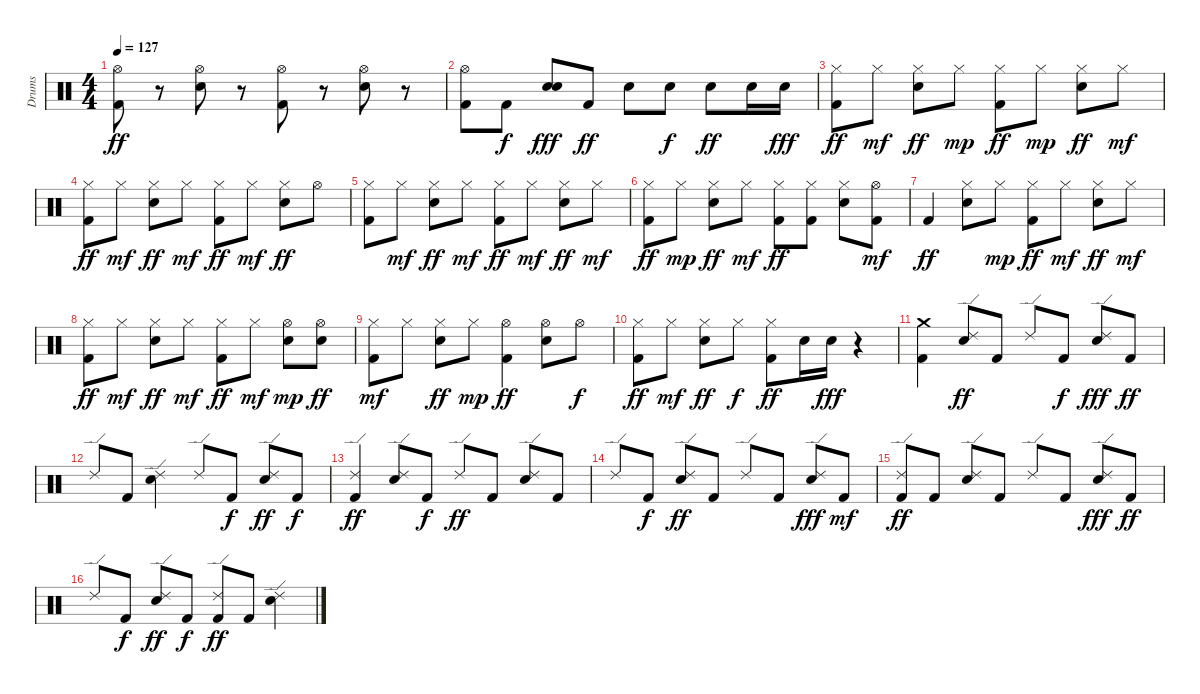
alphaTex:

\track ("Drums" "Drums") {instrument percussion}
\staff {score}
\articulation defaults
\ts (4 4)
\tempo 127
\clef neutral
\ks c
("Hi-Hat (open)" "Kick (hit) 2").8{dy ff} r.8 ("Hi-Hat (open)" "Electric Snare (hit)").8 r.8 ("Hi-Hat (open)" "Kick (hit) 2").8 r.8 ("Hi-Hat (open)" "Electric Snare (hit)").8 r.8 |
("Hi-Hat (open)" "Kick (hit) 2").8 "Kick (hit) 2".8{dy f} ("Electric Snare (hit)" "Electric Snare (hit)").8{dy fff} "Kick (hit) 2".8{dy ff} "Electric Snare (hit)".8 "Electric Snare (hit)".8{dy f} "Electric Snare (hit)".8{dy ff} "Electric Snare (hit)".16 "Electric Snare (hit)".16{dy fff} |
("Hi-Hat (closed)" "Kick (hit) 2").8{dy ff} "Hi-Hat (closed)".8{dy mf} ("Electric Snare (hit)" "Hi-Hat (closed)").8{dy ff} "Hi-Hat (closed)".8{dy mp} ("Hi-Hat (closed)" "Kick (hit) 2").8{dy ff} "Hi-Hat (closed)".8{dy mp} ("Electric Snare (hit)" "Hi-Hat (closed)").8{dy ff} "Hi-Hat (closed)".8{dy mf} |
("Hi-Hat (closed)" "Kick (hit) 2").8{dy ff} "Hi-Hat (closed)".8{dy mf} ("Hi-Hat (closed)" "Electric Snare (hit)").8{dy ff} "Hi-Hat (closed)".8{dy mf} ("Hi-Hat (closed)" "Kick (hit) 2").8{dy ff} "Hi-Hat (closed)".8{dy mf} ("Electric Snare (hit)" "Hi-Hat (closed)").8{dy ff} "Hi-Hat (open)".8 |
("Hi-Hat (closed)" "Kick (hit) 2").8 "Hi-Hat (closed)".8{dy mf} ("Electric Snare (hit)" "Hi-Hat (closed)").8{dy ff} "Hi-Hat (closed)".8{dy mf} ("Kick (hit) 2" "Hi-Hat (closed)").8{dy ff} "Hi-Hat (closed)".8{dy mf} ("Hi-Hat (closed)" "Electric Snare (hit)").8{dy ff} "Hi-Hat (closed)".8{dy mf} |
("Kick (hit) 2" "Hi-Hat (closed)").8{dy ff} "Hi-Hat (closed)".8{dy mp} ("Electric Snare (hit)" "Hi-Hat (closed)").8{dy ff} "Hi-Hat (closed)".8{dy mf} ("Kick (hit) 2" "Hi-Hat (closed)").8{dy ff} ("Kick (hit) 2" "Hi-Hat (closed)").8 ("Electric Snare (hit)" "Hi-Hat (closed)").8 ("Hi-Hat (open)" "Kick (hit) 2").8{dy mf} |
"Kick (hit) 2".4{dy ff} ("Electric Snare (hit)" "Hi-Hat (closed)").8 "Hi-Hat (closed)".8{dy mp} ("Hi-Hat (closed)" "Kick (hit) 2").8{dy ff} "Hi-Hat (closed)".8{dy mf} ("Hi-Hat (closed)" "Electric Snare (hit)").8{dy ff} "Hi-Hat (closed)".8{dy mf} |
("Hi-Hat (closed)" "Kick (hit) 2").8{dy ff} "Hi-Hat (closed)".8{dy mf} ("Hi-Hat (closed)" "Electric Snare (hit)").8{dy ff} "Hi-Hat (closed)".8{dy mf} ("Hi-Hat (closed)" "Kick (hit) 2").8{dy ff} "Hi-Hat (closed)".8{dy mf} ("Electric Snare (hit)" "Hi-Hat (open)").8{dy mp} ("Electric Snare (hit)" "Hi-Hat (open)").8{dy ff} |
("Kick (hit) 2" "Hi-Hat (closed)").8{dy mf} "Hi-Hat (closed)".8 ("Electric Snare (hit)" "Hi-Hat (closed)").8{dy ff} "Hi-Hat (closed)".8{dy mp} ("Hi-Hat (open)" "Kick (hit) 2").4{dy ff} ("Hi-Hat (open)" "Electric Snare (hit)").8 "Hi-Hat (open)".8{dy f} |
("Hi-Hat (closed)" "Kick (hit) 2").8{dy ff} "Hi-Hat (closed)".8{dy mf} ("Hi-Hat (closed)" "Electric Snare (hit)").8{dy ff} "Hi-Hat (closed)".8{dy f} ("Kick (hit) 2" "Hi-Hat (closed)").8{dy ff} "Electric Snare (hit)".16 "Electric Snare (hit)".16{dy fff} r.4 |
("Crash medium (hit)" "Kick (hit) 2").4 ("Ride (edge) 2" "Electric Snare (hit)").8{dy ff} "Kick (hit) 2".8 "Ride (edge) 2".8 "Kick (hit) 2".8{dy f} ("Ride (edge) 2" "Electric Snare (hit)").8{dy fff} "Kick (hit) 2".8{dy ff} |
"Ride (edge) 2".8 "Kick (hit) 2".8 ("Ride (edge) 2" "Electric Snare (hit)").4 "Ride (edge) 2".8 "Kick (hit) 2".8{dy f} ("Ride (edge) 2" "Electric Snare (hit)").8{dy ff} "Kick (hit) 2".8{dy f} |
("Ride (edge) 2" "Kick (hit) 2").4{dy ff} ("Ride (edge) 2" "Electric Snare (hit)").8 "Kick (hit) 2".8{dy f} "Ride (edge) 2".8{dy ff} "Kick (hit) 2".8 ("Ride (edge) 2" "Electric Snare (hit)").8 "Kick (hit) 2".8 |
"Ride (edge) 2".8 "Kick (hit) 2".8{dy f} ("Ride (edge) 2" "Electric Snare (hit)").8{dy ff} "Kick (hit) 2".8 "Ride (edge) 2".8 "Kick (hit) 2".8 ("Ride (edge) 2" "Electric Snare (hit)").8{dy fff} "Kick (hit) 2".8{dy mf} |
("Ride (edge) 2" "Kick (hit) 2").8{dy ff} "Kick (hit) 2".8 ("Ride (edge) 2" "Electric Snare (hit)").8 "Kick (hit) 2".8 "Ride (edge) 2".8 "Kick (hit) 2".8 ("Ride (edge) 2" "Electric Snare (hit)").8{dy fff} "Kick (hit) 2".8{dy ff} |
"Ride (edge) 2".8 "Kick (hit) 2".8{dy f} ("Ride (edge) 2" "Electric Snare (hit)").8{dy ff} "Kick (hit) 2".8{dy f} ("Ride (edge) 2" "Kick (hit) 2").8{dy ff} "Kick (hit) 2".8 ("Ride (edge) 2" "Electric Snare (hit)").4
